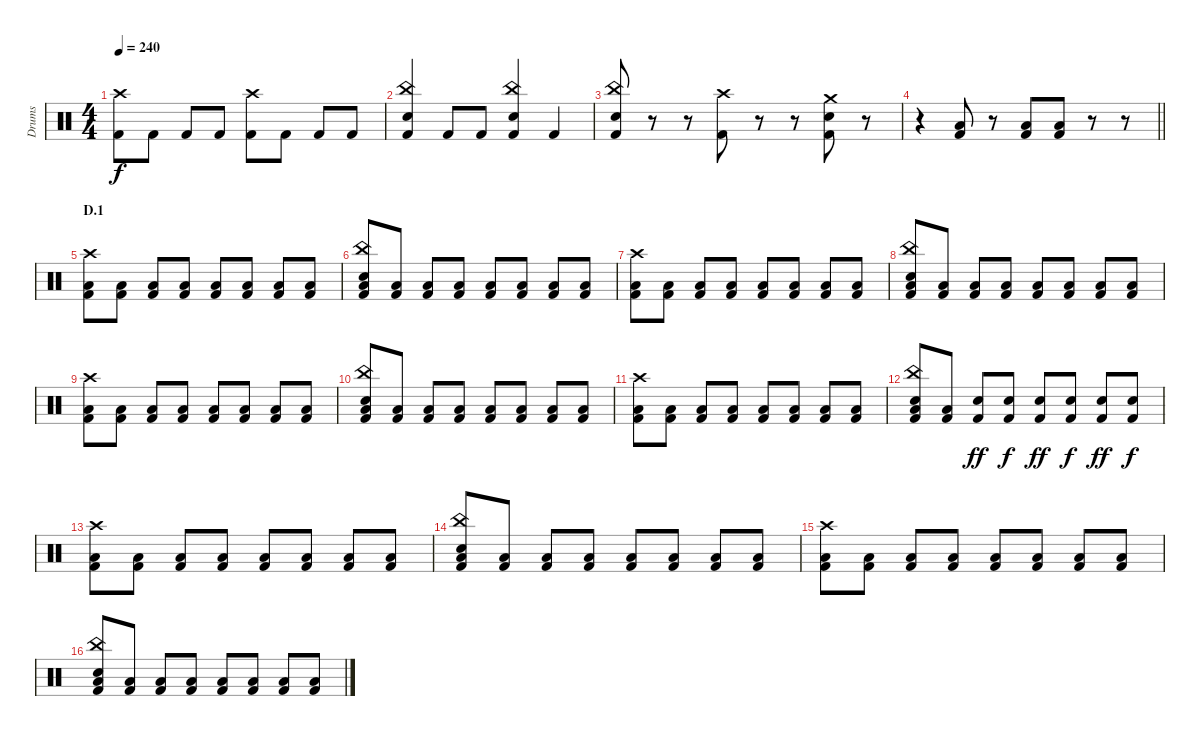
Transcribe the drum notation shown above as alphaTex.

\track ("Drums" "Drums") {instrument percussion}
\staff {score}
\articulation defaults
\ts (4 4)
\tempo 240
\clef neutral
\ks c
("Crash high (hit)" "Kick (hit) 2").8{dy f} "Kick (hit) 2".8 "Kick (hit) 2".8 "Kick (hit) 2".8 ("Crash high (hit)" "Kick (hit) 2").8 "Kick (hit) 2".8 "Kick (hit) 2".8 "Kick (hit) 2".8 |
("China (hit)" "Electric Snare (hit)" "Kick (hit) 2").4 "Kick (hit) 2".8 "Kick (hit) 2".8 ("China (hit)" "Electric Snare (hit)" "Kick (hit) 2").4 "Kick (hit) 2".4 |
("China (hit)" "Electric Snare (hit)" "Kick (hit) 2").8 r.8 r.8 ("Crash high (hit)" "Kick (hit) 2").8 r.8 r.8 ("Crash medium (hit)" "Electric Snare (hit)" "Kick (hit) 2").8 r.8 |
\barLineRight lightlight
r.4 ("Low Floor Tom (hit)" "Kick (hit) 2").8{bu 240} r.8 ("Low Floor Tom (hit)" "Kick (hit) 2").8{bu 240} ("Low Floor Tom (hit)" "Kick (hit) 2").8{bu 240} r.8 r.8 |
\section ("" "D.1")
("Crash high (hit)" "Low Floor Tom (hit)" "Kick (hit) 2").8 ("Low Floor Tom (hit)" "Kick (hit) 2").8 ("Low Floor Tom (hit)" "Kick (hit) 2").8 ("Low Floor Tom (hit)" "Kick (hit) 2").8 ("Low Floor Tom (hit)" "Kick (hit) 2").8 ("Low Floor Tom (hit)" "Kick (hit) 2").8 ("Low Floor Tom (hit)" "Kick (hit) 2").8 ("Low Floor Tom (hit)" "Kick (hit) 2").8 |
("China (hit)" "Electric Snare (hit)" "Low Floor Tom (hit)" "Kick (hit) 2").8 ("Low Floor Tom (hit)" "Kick (hit) 2").8 ("Low Floor Tom (hit)" "Kick (hit) 2").8 ("Low Floor Tom (hit)" "Kick (hit) 2").8 ("Low Floor Tom (hit)" "Kick (hit) 2").8 ("Low Floor Tom (hit)" "Kick (hit) 2").8 ("Low Floor Tom (hit)" "Kick (hit) 2").8 ("Low Floor Tom (hit)" "Kick (hit) 2").8 |
("Crash high (hit)" "Low Floor Tom (hit)" "Kick (hit) 2").8 ("Low Floor Tom (hit)" "Kick (hit) 2").8 ("Low Floor Tom (hit)" "Kick (hit) 2").8 ("Low Floor Tom (hit)" "Kick (hit) 2").8 ("Low Floor Tom (hit)" "Kick (hit) 2").8 ("Low Floor Tom (hit)" "Kick (hit) 2").8 ("Low Floor Tom (hit)" "Kick (hit) 2").8 ("Low Floor Tom (hit)" "Kick (hit) 2").8 |
("China (hit)" "Electric Snare (hit)" "Low Floor Tom (hit)" "Kick (hit) 2").8 ("Low Floor Tom (hit)" "Kick (hit) 2").8 ("Low Floor Tom (hit)" "Kick (hit) 2").8 ("Low Floor Tom (hit)" "Kick (hit) 2").8 ("Low Floor Tom (hit)" "Kick (hit) 2").8 ("Low Floor Tom (hit)" "Kick (hit) 2").8 ("Low Floor Tom (hit)" "Kick (hit) 2").8 ("Low Floor Tom (hit)" "Kick (hit) 2").8 |
("Crash high (hit)" "Low Floor Tom (hit)" "Kick (hit) 2").8 ("Low Floor Tom (hit)" "Kick (hit) 2").8 ("Low Floor Tom (hit)" "Kick (hit) 2").8 ("Low Floor Tom (hit)" "Kick (hit) 2").8 ("Low Floor Tom (hit)" "Kick (hit) 2").8 ("Low Floor Tom (hit)" "Kick (hit) 2").8 ("Low Floor Tom (hit)" "Kick (hit) 2").8 ("Low Floor Tom (hit)" "Kick (hit) 2").8 |
("China (hit)" "Electric Snare (hit)" "Low Floor Tom (hit)" "Kick (hit) 2").8 ("Low Floor Tom (hit)" "Kick (hit) 2").8 ("Low Floor Tom (hit)" "Kick (hit) 2").8 ("Low Floor Tom (hit)" "Kick (hit) 2").8 ("Low Floor Tom (hit)" "Kick (hit) 2").8 ("Low Floor Tom (hit)" "Kick (hit) 2").8 ("Low Floor Tom (hit)" "Kick (hit) 2").8 ("Low Floor Tom (hit)" "Kick (hit) 2").8 |
("Crash high (hit)" "Low Floor Tom (hit)" "Kick (hit) 2").8 ("Low Floor Tom (hit)" "Kick (hit) 2").8 ("Low Floor Tom (hit)" "Kick (hit) 2").8 ("Low Floor Tom (hit)" "Kick (hit) 2").8 ("Low Floor Tom (hit)" "Kick (hit) 2").8 ("Low Floor Tom (hit)" "Kick (hit) 2").8 ("Low Floor Tom (hit)" "Kick (hit) 2").8 ("Low Floor Tom (hit)" "Kick (hit) 2").8 |
("China (hit)" "Electric Snare (hit)" "Low Floor Tom (hit)" "Kick (hit) 2").8 ("Low Floor Tom (hit)" "Kick (hit) 2").8 ("Electric Snare (hit)" "Kick (hit) 2").8{dy ff} ("Electric Snare (hit)" "Kick (hit) 2").8{dy f} ("Electric Snare (hit)" "Kick (hit) 2").8{dy ff} ("Electric Snare (hit)" "Kick (hit) 2").8{dy f} ("Electric Snare (hit)" "Kick (hit) 2").8{dy ff} ("Electric Snare (hit)" "Kick (hit) 2").8{dy f} |
("Crash high (hit)" "Low Floor Tom (hit)" "Kick (hit) 2").8 ("Low Floor Tom (hit)" "Kick (hit) 2").8 ("Low Floor Tom (hit)" "Kick (hit) 2").8 ("Low Floor Tom (hit)" "Kick (hit) 2").8 ("Low Floor Tom (hit)" "Kick (hit) 2").8 ("Low Floor Tom (hit)" "Kick (hit) 2").8 ("Low Floor Tom (hit)" "Kick (hit) 2").8 ("Low Floor Tom (hit)" "Kick (hit) 2").8 |
("China (hit)" "Electric Snare (hit)" "Low Floor Tom (hit)" "Kick (hit) 2").8 ("Low Floor Tom (hit)" "Kick (hit) 2").8 ("Low Floor Tom (hit)" "Kick (hit) 2").8 ("Low Floor Tom (hit)" "Kick (hit) 2").8 ("Low Floor Tom (hit)" "Kick (hit) 2").8 ("Low Floor Tom (hit)" "Kick (hit) 2").8 ("Low Floor Tom (hit)" "Kick (hit) 2").8 ("Low Floor Tom (hit)" "Kick (hit) 2").8 |
("Crash high (hit)" "Low Floor Tom (hit)" "Kick (hit) 2").8 ("Low Floor Tom (hit)" "Kick (hit) 2").8 ("Low Floor Tom (hit)" "Kick (hit) 2").8 ("Low Floor Tom (hit)" "Kick (hit) 2").8 ("Low Floor Tom (hit)" "Kick (hit) 2").8 ("Low Floor Tom (hit)" "Kick (hit) 2").8 ("Low Floor Tom (hit)" "Kick (hit) 2").8 ("Low Floor Tom (hit)" "Kick (hit) 2").8 |
("China (hit)" "Electric Snare (hit)" "Low Floor Tom (hit)" "Kick (hit) 2").8 ("Low Floor Tom (hit)" "Kick (hit) 2").8 ("Low Floor Tom (hit)" "Kick (hit) 2").8 ("Low Floor Tom (hit)" "Kick (hit) 2").8 ("Low Floor Tom (hit)" "Kick (hit) 2").8 ("Low Floor Tom (hit)" "Kick (hit) 2").8 ("Low Floor Tom (hit)" "Kick (hit) 2").8 ("Low Floor Tom (hit)" "Kick (hit) 2").8
